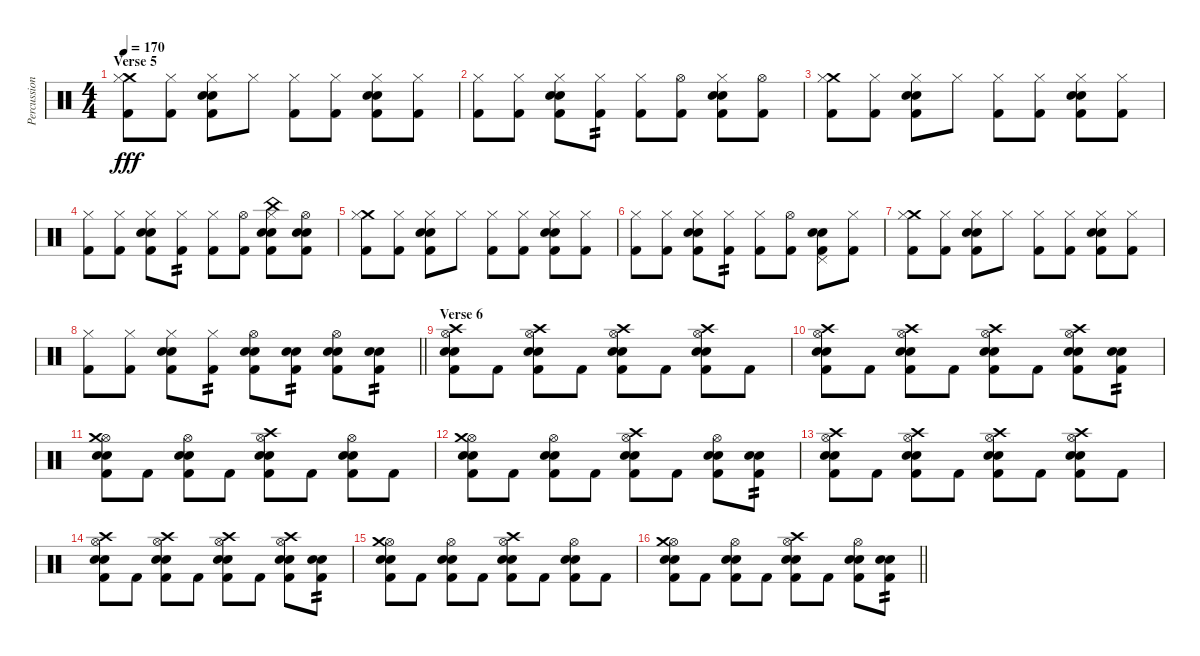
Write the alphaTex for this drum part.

\track ("Percussion" "Percussion") {instrument percussion}
\staff {score}
\articulation defaults
\ts (4 4)
\section ("" "Verse 5")
\tempo 170
\clef neutral
\ks c
("Crash medium (hit)" "Hi-Hat (closed)" "Kick (hit) 2").8{dy fff} ("Hi-Hat (closed)" "Kick (hit) 2").8 ("Hi-Hat (closed)" "Electric Snare (hit)" "Snare (hit) 2" "Kick (hit) 2").8 "Hi-Hat (closed)".8 ("Hi-Hat (closed)" "Kick (hit) 2").8 ("Hi-Hat (closed)" "Kick (hit) 2").8 ("Hi-Hat (closed)" "Electric Snare (hit)" "Snare (hit) 2" "Kick (hit) 2").8 ("Hi-Hat (closed)" "Kick (hit) 2").8 |
("Hi-Hat (closed)" "Kick (hit) 2").8 ("Hi-Hat (closed)" "Kick (hit) 2").8 ("Hi-Hat (closed)" "Electric Snare (hit)" "Snare (hit) 2" "Kick (hit) 2").8 ("Hi-Hat (closed)" "Kick (hit) 2").8{tp 2} ("Hi-Hat (closed)" "Kick (hit) 2").8 ("Hi-Hat (open)" "Kick (hit) 2").8 ("Hi-Hat (closed)" "Electric Snare (hit)" "Snare (hit) 2" "Kick (hit) 2").8 ("Hi-Hat (open)" "Kick (hit) 2").8 |
("Crash medium (hit)" "Hi-Hat (closed)" "Kick (hit) 2").8 ("Hi-Hat (closed)" "Kick (hit) 2").8 ("Hi-Hat (closed)" "Electric Snare (hit)" "Snare (hit) 2" "Kick (hit) 2").8 "Hi-Hat (closed)".8 ("Hi-Hat (closed)" "Kick (hit) 2").8 ("Hi-Hat (closed)" "Kick (hit) 2").8 ("Hi-Hat (closed)" "Electric Snare (hit)" "Snare (hit) 2" "Kick (hit) 2").8 ("Hi-Hat (closed)" "Kick (hit) 2").8 |
("Hi-Hat (closed)" "Kick (hit) 2").8 ("Hi-Hat (closed)" "Kick (hit) 2").8 ("Hi-Hat (closed)" "Electric Snare (hit)" "Snare (hit) 2" "Kick (hit) 2").8 ("Hi-Hat (closed)" "Kick (hit) 2").8{tp 2} ("Hi-Hat (closed)" "Kick (hit) 2").8 ("Hi-Hat (open)" "Kick (hit) 2").8 ("China (hit)" "Hi-Hat (closed)" "Electric Snare (hit)" "Snare (hit) 2" "Kick (hit) 2").8 ("Hi-Hat (open)" "Electric Snare (hit)" "Snare (hit) 2" "Kick (hit) 2").8 |
("Crash medium (hit)" "Hi-Hat (closed)" "Kick (hit) 2").8 ("Hi-Hat (closed)" "Kick (hit) 2").8 ("Hi-Hat (closed)" "Electric Snare (hit)" "Snare (hit) 2" "Kick (hit) 2").8 "Hi-Hat (closed)".8 ("Hi-Hat (closed)" "Kick (hit) 2").8 ("Hi-Hat (closed)" "Kick (hit) 2").8 ("Hi-Hat (closed)" "Electric Snare (hit)" "Snare (hit) 2" "Kick (hit) 2").8 ("Hi-Hat (closed)" "Kick (hit) 2").8 |
("Hi-Hat (closed)" "Kick (hit) 2").8 ("Hi-Hat (closed)" "Kick (hit) 2").8 ("Hi-Hat (closed)" "Electric Snare (hit)" "Snare (hit) 2" "Kick (hit) 2").8 ("Hi-Hat (closed)" "Kick (hit) 2").8{tp 2} ("Hi-Hat (closed)" "Kick (hit) 2").8 ("Hi-Hat (open)" "Kick (hit) 2").8 ("Pedal Hi-Hat (hit)" "Electric Snare (hit)" "Snare (hit) 2" "Kick (hit) 2").8 ("Hi-Hat (closed)" "Kick (hit) 2").8 |
("Crash medium (hit)" "Hi-Hat (closed)" "Kick (hit) 2").8 ("Hi-Hat (closed)" "Kick (hit) 2").8 ("Hi-Hat (closed)" "Electric Snare (hit)" "Snare (hit) 2" "Kick (hit) 2").8 "Hi-Hat (closed)".8 ("Hi-Hat (closed)" "Kick (hit) 2").8 ("Hi-Hat (closed)" "Kick (hit) 2").8 ("Hi-Hat (closed)" "Electric Snare (hit)" "Snare (hit) 2" "Kick (hit) 2").8 ("Hi-Hat (closed)" "Kick (hit) 2").8 |
\barLineRight lightlight
("Hi-Hat (closed)" "Kick (hit) 2").8 ("Hi-Hat (closed)" "Kick (hit) 2").8 ("Hi-Hat (closed)" "Electric Snare (hit)" "Snare (hit) 2" "Kick (hit) 2").8 ("Hi-Hat (closed)" "Kick (hit) 2").8{tp 2} ("Hi-Hat (open)" "Electric Snare (hit)" "Snare (hit) 2" "Kick (hit) 2").8 ("Electric Snare (hit)" "Snare (hit) 2" "Kick (hit) 2").8{tp 2} ("Hi-Hat (open)" "Electric Snare (hit)" "Snare (hit) 2" "Kick (hit) 2").8 ("Electric Snare (hit)" "Snare (hit) 2" "Kick (hit) 2").8{tp 2} |
\section ("" "Verse 6")
("Hi-Hat (open)" "Crash high (hit)" "Electric Snare (hit)" "Snare (hit) 2" "Kick (hit) 2").8 "Kick (hit) 2".8 ("Hi-Hat (open)" "Crash high (hit)" "Electric Snare (hit)" "Snare (hit) 2" "Kick (hit) 2").8 "Kick (hit) 2".8 ("Hi-Hat (open)" "Crash high (hit)" "Electric Snare (hit)" "Snare (hit) 2" "Kick (hit) 2").8 "Kick (hit) 2".8 ("Hi-Hat (open)" "Crash high (hit)" "Electric Snare (hit)" "Snare (hit) 2" "Kick (hit) 2").8 "Kick (hit) 2".8 |
("Hi-Hat (open)" "Crash high (hit)" "Electric Snare (hit)" "Snare (hit) 2" "Kick (hit) 2").8 "Kick (hit) 2".8 ("Hi-Hat (open)" "Crash high (hit)" "Electric Snare (hit)" "Snare (hit) 2" "Kick (hit) 2").8 "Kick (hit) 2".8 ("Hi-Hat (open)" "Crash high (hit)" "Electric Snare (hit)" "Snare (hit) 2" "Kick (hit) 2").8 "Kick (hit) 2".8 ("Hi-Hat (open)" "Crash high (hit)" "Electric Snare (hit)" "Snare (hit) 2" "Kick (hit) 2").8 ("Electric Snare (hit)" "Snare (hit) 2" "Kick (hit) 2").8{tp 2} |
("Hi-Hat (open)" "Crash medium (hit)" "Electric Snare (hit)" "Snare (hit) 2" "Kick (hit) 2").8 "Kick (hit) 2".8 ("Hi-Hat (open)" "Electric Snare (hit)" "Snare (hit) 2" "Kick (hit) 2").8 "Kick (hit) 2".8 ("Hi-Hat (open)" "Crash high (hit)" "Electric Snare (hit)" "Snare (hit) 2" "Kick (hit) 2").8 "Kick (hit) 2".8 ("Hi-Hat (open)" "Electric Snare (hit)" "Snare (hit) 2" "Kick (hit) 2").8 "Kick (hit) 2".8 |
("Hi-Hat (open)" "Crash medium (hit)" "Electric Snare (hit)" "Snare (hit) 2" "Kick (hit) 2").8 "Kick (hit) 2".8 ("Hi-Hat (open)" "Electric Snare (hit)" "Snare (hit) 2" "Kick (hit) 2").8 "Kick (hit) 2".8 ("Hi-Hat (open)" "Crash high (hit)" "Electric Snare (hit)" "Snare (hit) 2" "Kick (hit) 2").8 "Kick (hit) 2".8 ("Hi-Hat (open)" "Electric Snare (hit)" "Snare (hit) 2" "Kick (hit) 2").8 ("Electric Snare (hit)" "Snare (hit) 2" "Kick (hit) 2").8{tp 2} |
("Hi-Hat (open)" "Crash high (hit)" "Electric Snare (hit)" "Snare (hit) 2" "Kick (hit) 2").8 "Kick (hit) 2".8 ("Hi-Hat (open)" "Crash high (hit)" "Electric Snare (hit)" "Snare (hit) 2" "Kick (hit) 2").8 "Kick (hit) 2".8 ("Hi-Hat (open)" "Crash high (hit)" "Electric Snare (hit)" "Snare (hit) 2" "Kick (hit) 2").8 "Kick (hit) 2".8 ("Hi-Hat (open)" "Crash high (hit)" "Electric Snare (hit)" "Snare (hit) 2" "Kick (hit) 2").8 "Kick (hit) 2".8 |
("Hi-Hat (open)" "Crash high (hit)" "Electric Snare (hit)" "Snare (hit) 2" "Kick (hit) 2").8 "Kick (hit) 2".8 ("Hi-Hat (open)" "Crash high (hit)" "Electric Snare (hit)" "Snare (hit) 2" "Kick (hit) 2").8 "Kick (hit) 2".8 ("Hi-Hat (open)" "Crash high (hit)" "Electric Snare (hit)" "Snare (hit) 2" "Kick (hit) 2").8 "Kick (hit) 2".8 ("Hi-Hat (open)" "Crash high (hit)" "Electric Snare (hit)" "Snare (hit) 2" "Kick (hit) 2").8 ("Electric Snare (hit)" "Snare (hit) 2" "Kick (hit) 2").8{tp 2} |
("Hi-Hat (open)" "Crash medium (hit)" "Electric Snare (hit)" "Snare (hit) 2" "Kick (hit) 2").8 "Kick (hit) 2".8 ("Hi-Hat (open)" "Electric Snare (hit)" "Snare (hit) 2" "Kick (hit) 2").8 "Kick (hit) 2".8 ("Hi-Hat (open)" "Crash high (hit)" "Electric Snare (hit)" "Snare (hit) 2" "Kick (hit) 2").8 "Kick (hit) 2".8 ("Hi-Hat (open)" "Electric Snare (hit)" "Snare (hit) 2" "Kick (hit) 2").8 "Kick (hit) 2".8 |
\barLineRight lightlight
("Hi-Hat (open)" "Crash medium (hit)" "Electric Snare (hit)" "Snare (hit) 2" "Kick (hit) 2").8 "Kick (hit) 2".8 ("Hi-Hat (open)" "Electric Snare (hit)" "Snare (hit) 2" "Kick (hit) 2").8 "Kick (hit) 2".8 ("Hi-Hat (open)" "Crash high (hit)" "Electric Snare (hit)" "Snare (hit) 2" "Kick (hit) 2").8 "Kick (hit) 2".8 ("Hi-Hat (open)" "Electric Snare (hit)" "Snare (hit) 2" "Kick (hit) 2").8 ("Electric Snare (hit)" "Snare (hit) 2" "Kick (hit) 2").8{tp 2}
